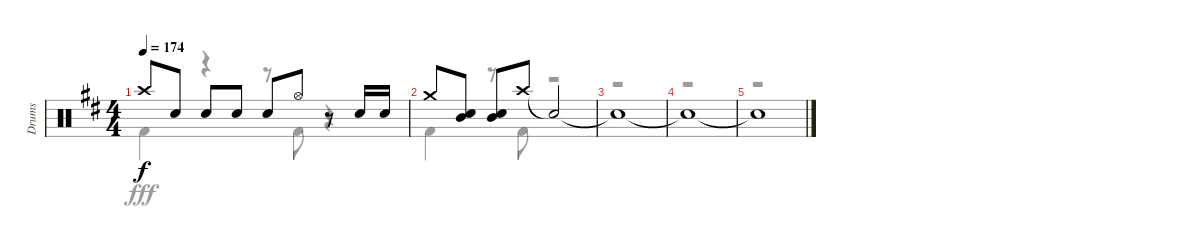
\track ("Drums" "Drums") {instrument percussion}
\staff {score}
\articulation defaults
\voice
\ts (4 4)
\tempo 174
\clef neutral
\ks bminor "Crash high (hit)".8{dy f} "Snare (hit) 2".8 "Snare (hit) 2".8 "Snare (hit) 2".8 "Snare (hit) 2".8 "Hi-Hat (open)".8
r.8 "Snare (hit) 2".16 "Snare (hit) 2".16 |
"Crash medium (hit)".8 ("Mid Tom (hit)" "Snare (hit) 2").8 ("Mid Tom (hit)" "Snare (hit) 2").8 "Crash high (hit)".8 "Snare (hit)"{t}.2 |
"Snare (hit)"{t}.1 |
"Snare (hit)"{t}.1 |
"Snare (hit)"{t}.1
\voice
\clef neutral
\ottava regular
\simile none
\ks bminor "Kick (hit) 2".4{dy fff}
r.4 r.8 "Kick (hit) 2".8 r.4 |
"Kick (hit) 2".4 r.8 "Kick (hit) 2".8 r.2 |
r.1 |
r.1 |
r.1
